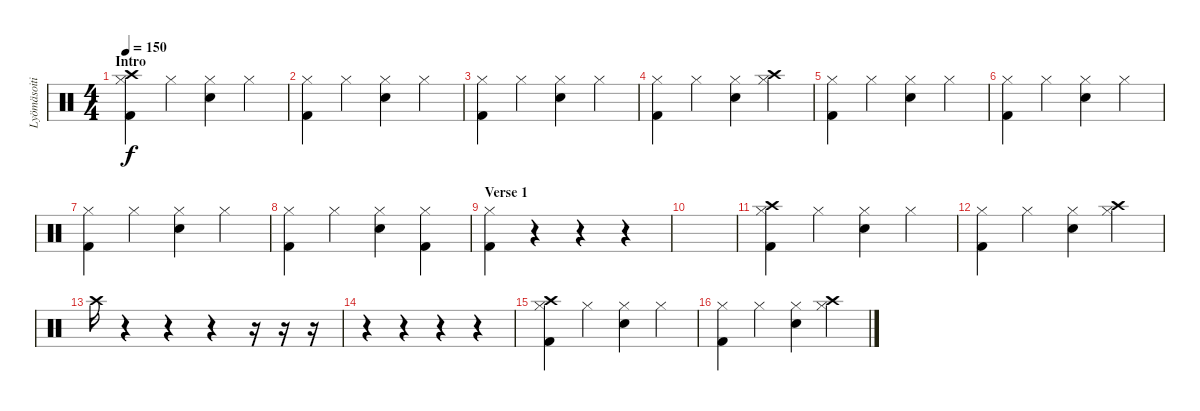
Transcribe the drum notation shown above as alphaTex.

\track ("Lyömäsoitin" "Lyömäsoiti") {instrument percussion}
\staff {score}
\articulation defaults
\ts (4 4)
\section ("" "Intro")
\tempo 150
\clef neutral
\ks c
("Hi-Hat (closed)" "Kick (hit) 2" "Crash high (hit)").4{dy f} "Hi-Hat (closed)".4 ("Hi-Hat (closed)" "Snare (hit) 2").4 "Hi-Hat (closed)".4 |
("Hi-Hat (closed)" "Kick (hit) 2").4 "Hi-Hat (closed)".4 ("Hi-Hat (closed)" "Snare (hit) 2").4 "Hi-Hat (closed)".4 |
("Hi-Hat (closed)" "Kick (hit) 2").4 "Hi-Hat (closed)".4 ("Hi-Hat (closed)" "Snare (hit) 2").4 "Hi-Hat (closed)".4 |
("Hi-Hat (closed)" "Kick (hit) 2").4 "Hi-Hat (closed)".4 ("Hi-Hat (closed)" "Snare (hit) 2").4 ("Hi-Hat (closed)" "Crash high (hit)").4 |
("Hi-Hat (closed)" "Kick (hit) 2").4 "Hi-Hat (closed)".4 ("Hi-Hat (closed)" "Snare (hit) 2").4 "Hi-Hat (closed)".4 |
("Hi-Hat (closed)" "Kick (hit) 2").4 "Hi-Hat (closed)".4 ("Hi-Hat (closed)" "Snare (hit) 2").4 "Hi-Hat (closed)".4 |
("Hi-Hat (closed)" "Kick (hit) 2").4 "Hi-Hat (closed)".4 ("Hi-Hat (closed)" "Snare (hit) 2").4 "Hi-Hat (closed)".4 |
("Hi-Hat (closed)" "Kick (hit) 2").4 "Hi-Hat (closed)".4 ("Hi-Hat (closed)" "Snare (hit) 2").4 ("Hi-Hat (closed)" "Kick (hit) 2").4 |
\section ("" "Verse 1")
("Hi-Hat (closed)" "Kick (hit) 2").4 r.4 r.4 r.4 |
|
("Hi-Hat (closed)" "Kick (hit) 2" "Crash high (hit)").4 "Hi-Hat (closed)".4 ("Hi-Hat (closed)" "Snare (hit) 2").4 "Hi-Hat (closed)".4 |
("Hi-Hat (closed)" "Kick (hit) 2").4 "Hi-Hat (closed)".4 ("Hi-Hat (closed)" "Snare (hit) 2").4 ("Hi-Hat (closed)" "Crash high (hit)").4 |
"Crash high (hit)".16 r.4 r.4 r.4 r.16 r.16 r.16 |
r.4 r.4 r.4 r.4 |
("Hi-Hat (closed)" "Kick (hit) 2" "Crash high (hit)").4 "Hi-Hat (closed)".4 ("Hi-Hat (closed)" "Snare (hit) 2").4 "Hi-Hat (closed)".4 |
("Hi-Hat (closed)" "Kick (hit) 2").4 "Hi-Hat (closed)".4 ("Hi-Hat (closed)" "Snare (hit) 2").4 ("Hi-Hat (closed)" "Crash high (hit)").4
